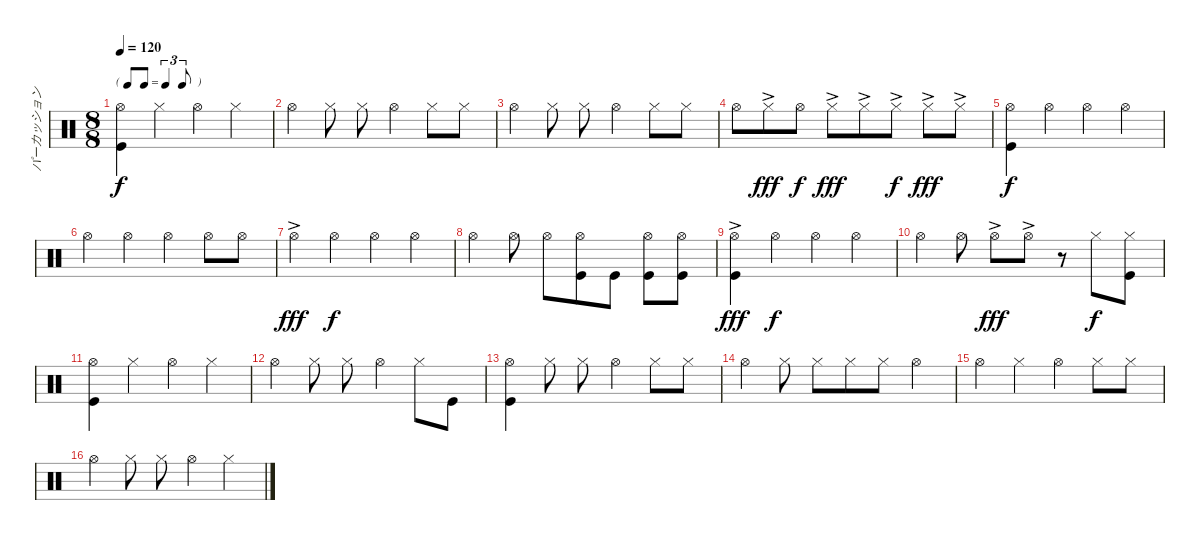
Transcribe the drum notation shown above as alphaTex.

\track ("パーカッション" "パーカッション") {instrument percussion}
\staff {score}
\articulation defaults
\ts (8 8)
\tf triplet8th
\tempo 120
\clef neutral
\ks c
("Hi-Hat (open)" "Kick (hit)").4{dy f} "Hi-Hat (closed)".4 "Hi-Hat (open)".4 "Hi-Hat (closed)".4 |
"Hi-Hat (open)".4 "Hi-Hat (closed)".8 "Hi-Hat (closed)".8 "Hi-Hat (open)".4 "Hi-Hat (closed)".8 "Hi-Hat (closed)".8 |
"Hi-Hat (open)".4 "Hi-Hat (closed)".8 "Hi-Hat (closed)".8 "Hi-Hat (open)".4 "Hi-Hat (closed)".8 "Hi-Hat (closed)".8 |
"Hi-Hat (open)".8 "Hi-Hat (closed)"{ac}.8{dy fff} "Hi-Hat (open)".8{dy f} "Hi-Hat (closed)"{ac}.8{dy fff} "Hi-Hat (closed)"{ac}.8 "Hi-Hat (closed)"{ac}.8{dy f} "Hi-Hat (closed)"{ac}.8{dy fff} "Hi-Hat (closed)"{ac}.8 |
("Hi-Hat (open)" "Kick (hit)").4{dy f} "Hi-Hat (open)".4 "Hi-Hat (open)".4 "Hi-Hat (open)".4 |
"Hi-Hat (open)".4 "Hi-Hat (open)".4 "Hi-Hat (open)".4 "Hi-Hat (open)".8 "Hi-Hat (open)".8 |
"Hi-Hat (open)"{ac}.4{dy fff} "Hi-Hat (open)".4{dy f} "Hi-Hat (open)".4 "Hi-Hat (open)".4 |
"Hi-Hat (open)".4 "Hi-Hat (open)".8 "Hi-Hat (open)".8 ("Hi-Hat (open)" "Kick (hit)").8 "Kick (hit)".8 ("Hi-Hat (open)" "Kick (hit)").8 ("Hi-Hat (open)" "Kick (hit)").8 |
("Hi-Hat (open)"{ac} "Kick (hit)").4{dy fff} "Hi-Hat (open)".4{dy f} "Hi-Hat (open)".4 "Hi-Hat (open)".4 |
"Hi-Hat (open)".4 "Hi-Hat (open)".8 "Hi-Hat (open)"{ac}.8{dy fff} "Hi-Hat (open)"{ac}.8 r.8 "Hi-Hat (closed)".8{dy f} ("Hi-Hat (closed)" "Kick (hit)").8 |
("Hi-Hat (open)" "Kick (hit)").4 "Hi-Hat (closed)".4 "Hi-Hat (open)".4 "Hi-Hat (closed)".4 |
"Hi-Hat (open)".4 "Hi-Hat (closed)".8 "Hi-Hat (closed)".8 "Hi-Hat (open)".4 "Hi-Hat (closed)".8 "Kick (hit)".8 |
("Hi-Hat (open)" "Kick (hit)").4 "Hi-Hat (closed)".8 "Hi-Hat (closed)".8 "Hi-Hat (open)".4 "Hi-Hat (closed)".8 "Hi-Hat (closed)".8 |
"Hi-Hat (open)".4 "Hi-Hat (closed)".8 "Hi-Hat (closed)".8 "Hi-Hat (closed)".8 "Hi-Hat (closed)".8 "Hi-Hat (open)".4 |
"Hi-Hat (open)".4 "Hi-Hat (closed)".4 "Hi-Hat (open)".4 "Hi-Hat (closed)".8 "Hi-Hat (closed)".8 |
"Hi-Hat (open)".4 "Hi-Hat (closed)".8 "Hi-Hat (closed)".8 "Hi-Hat (open)".4 "Hi-Hat (closed)".4
